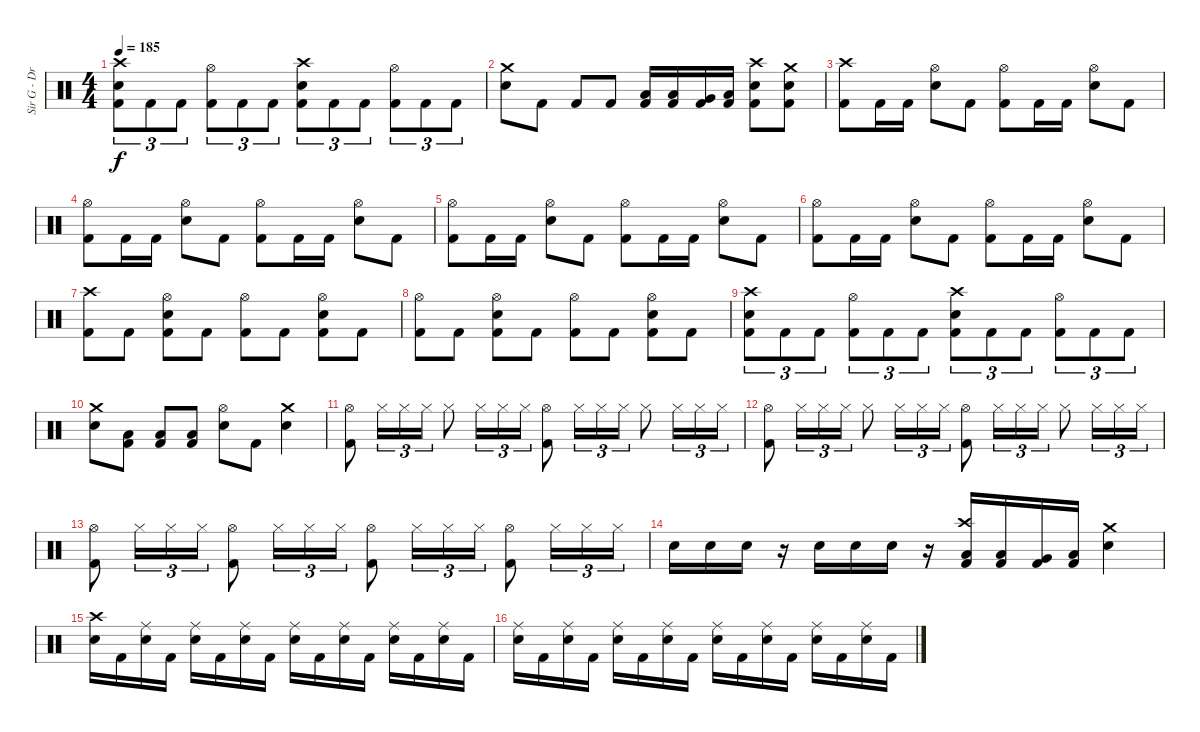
\track ("Sir G - Drums" "Sir G - Dr") {instrument percussion}
\staff {score}
\articulation defaults
\ts (4 4)
\tempo 185
\clef neutral
\ks c
("Kick (hit) 2" "Electric Snare (hit)" "Crash high (hit)").8{tu (3 2) dy f} "Kick (hit) 2".8{tu (3 2)} "Kick (hit) 2".8{tu (3 2)} ("Kick (hit) 2" "Hi-Hat (open)").8{tu (3 2)} "Kick (hit) 2".8{tu (3 2)} "Kick (hit) 2".8{tu (3 2)} ("Kick (hit) 2" "Electric Snare (hit)" "Crash high (hit)").8{tu (3 2)} "Kick (hit) 2".8{tu (3 2)} "Kick (hit) 2".8{tu (3 2)} ("Kick (hit) 2" "Hi-Hat (open)").8{tu (3 2)} "Kick (hit) 2".8{tu (3 2)} "Kick (hit) 2".8{tu (3 2)} |
("Electric Snare (hit)" "Crash medium (hit)").8 "Kick (hit) 2".8 "Kick (hit) 2".8 "Kick (hit) 2".8 ("Kick (hit) 2" "Low Tom (hit)").16 ("Kick (hit) 2" "Low Tom (hit)").16 ("Kick (hit) 2" "Very Low Tom (hit)").16 ("Kick (hit) 2" "Low Floor Tom (hit)").16 ("Kick (hit) 2" "Electric Snare (hit)" "Crash high (hit)").8 ("Kick (hit) 2" "Electric Snare (hit)" "Crash medium (hit)").8 |
("Kick (hit) 2" "Crash high (hit)").8 "Kick (hit) 2".16 "Kick (hit) 2".16 ("Electric Snare (hit)" "Hi-Hat (open)").8 "Kick (hit) 2".8 ("Kick (hit) 2" "Hi-Hat (open)").8 "Kick (hit) 2".16 "Kick (hit) 2".16 ("Electric Snare (hit)" "Hi-Hat (open)").8 "Kick (hit) 2".8 |
("Kick (hit) 2" "Hi-Hat (open)").8 "Kick (hit) 2".16 "Kick (hit) 2".16 ("Electric Snare (hit)" "Hi-Hat (open)").8 "Kick (hit) 2".8 ("Kick (hit) 2" "Hi-Hat (open)").8 "Kick (hit) 2".16 "Kick (hit) 2".16 ("Electric Snare (hit)" "Hi-Hat (open)").8 "Kick (hit) 2".8 |
("Kick (hit) 2" "Hi-Hat (open)").8 "Kick (hit) 2".16 "Kick (hit) 2".16 ("Electric Snare (hit)" "Hi-Hat (open)").8 "Kick (hit) 2".8 ("Kick (hit) 2" "Hi-Hat (open)").8 "Kick (hit) 2".16 "Kick (hit) 2".16 ("Electric Snare (hit)" "Hi-Hat (open)").8 "Kick (hit) 2".8 |
("Kick (hit) 2" "Hi-Hat (open)").8 "Kick (hit) 2".16 "Kick (hit) 2".16 ("Electric Snare (hit)" "Hi-Hat (open)").8 "Kick (hit) 2".8 ("Kick (hit) 2" "Hi-Hat (open)").8 "Kick (hit) 2".16 "Kick (hit) 2".16 ("Electric Snare (hit)" "Hi-Hat (open)").8 "Kick (hit) 2".8 |
("Kick (hit) 2" "Crash high (hit)").8 "Kick (hit) 2".8 ("Kick (hit) 2" "Electric Snare (hit)" "Hi-Hat (open)").8 "Kick (hit) 2".8 ("Kick (hit) 2" "Hi-Hat (open)").8 "Kick (hit) 2".8 ("Kick (hit) 2" "Electric Snare (hit)" "Hi-Hat (open)").8 "Kick (hit) 2".8 |
("Kick (hit) 2" "Hi-Hat (open)").8 "Kick (hit) 2".8 ("Kick (hit) 2" "Electric Snare (hit)" "Hi-Hat (open)").8 "Kick (hit) 2".8 ("Kick (hit) 2" "Hi-Hat (open)").8 "Kick (hit) 2".8 ("Kick (hit) 2" "Electric Snare (hit)" "Hi-Hat (open)").8 "Kick (hit) 2".8 |
("Kick (hit) 2" "Electric Snare (hit)" "Crash high (hit)").8{tu (3 2)} "Kick (hit) 2".8{tu (3 2)} "Kick (hit) 2".8{tu (3 2)} ("Kick (hit) 2" "Hi-Hat (open)").8{tu (3 2)} "Kick (hit) 2".8{tu (3 2)} "Kick (hit) 2".8{tu (3 2)} ("Kick (hit) 2" "Electric Snare (hit)" "Crash high (hit)").8{tu (3 2)} "Kick (hit) 2".8{tu (3 2)} "Kick (hit) 2".8{tu (3 2)} ("Kick (hit) 2" "Hi-Hat (open)").8{tu (3 2)} "Kick (hit) 2".8{tu (3 2)} "Kick (hit) 2".8{tu (3 2)} |
("Electric Snare (hit)" "Crash medium (hit)").8 ("Kick (hit) 2" "Low Floor Tom (hit)").8 ("Kick (hit) 2" "Low Floor Tom (hit)").8 ("Kick (hit) 2" "Low Floor Tom (hit)").8 ("Electric Snare (hit)" "Hi-Hat (open)").8 "Kick (hit) 2".8 ("Electric Snare (hit)" "Crash medium (hit)").4 |
("Kick (hit) 2" "Hi-Hat (open)").8 "Hi-Hat (closed)".16{tu (3 2)} "Hi-Hat (closed)".16{tu (3 2)} "Hi-Hat (closed)".16{tu (3 2)} "Hi-Hat (closed)".8 "Hi-Hat (closed)".16{tu (3 2)} "Hi-Hat (closed)".16{tu (3 2)} "Hi-Hat (closed)".16{tu (3 2)} ("Kick (hit) 2" "Hi-Hat (open)").8 "Hi-Hat (closed)".16{tu (3 2)} "Hi-Hat (closed)".16{tu (3 2)} "Hi-Hat (closed)".16{tu (3 2)} "Hi-Hat (closed)".8 "Hi-Hat (closed)".16{tu (3 2)} "Hi-Hat (closed)".16{tu (3 2)} "Hi-Hat (closed)".16{tu (3 2)} |
("Kick (hit) 2" "Hi-Hat (open)").8 "Hi-Hat (closed)".16{tu (3 2)} "Hi-Hat (closed)".16{tu (3 2)} "Hi-Hat (closed)".16{tu (3 2)} "Hi-Hat (closed)".8 "Hi-Hat (closed)".16{tu (3 2)} "Hi-Hat (closed)".16{tu (3 2)} "Hi-Hat (closed)".16{tu (3 2)} ("Kick (hit) 2" "Hi-Hat (open)").8 "Hi-Hat (closed)".16{tu (3 2)} "Hi-Hat (closed)".16{tu (3 2)} "Hi-Hat (closed)".16{tu (3 2)} "Hi-Hat (closed)".8 "Hi-Hat (closed)".16{tu (3 2)} "Hi-Hat (closed)".16{tu (3 2)} "Hi-Hat (closed)".16{tu (3 2)} |
("Kick (hit) 2" "Hi-Hat (open)").8 "Hi-Hat (closed)".16{tu (3 2)} "Hi-Hat (closed)".16{tu (3 2)} "Hi-Hat (closed)".16{tu (3 2)} ("Kick (hit) 2" "Hi-Hat (open)").8 "Hi-Hat (closed)".16{tu (3 2)} "Hi-Hat (closed)".16{tu (3 2)} "Hi-Hat (closed)".16{tu (3 2)} ("Kick (hit) 2" "Hi-Hat (open)").8 "Hi-Hat (closed)".16{tu (3 2)} "Hi-Hat (closed)".16{tu (3 2)} "Hi-Hat (closed)".16{tu (3 2)} ("Kick (hit) 2" "Hi-Hat (open)").8 "Hi-Hat (closed)".16{tu (3 2)} "Hi-Hat (closed)".16{tu (3 2)} "Hi-Hat (closed)".16{tu (3 2)} |
"Electric Snare (hit)".16 "Electric Snare (hit)".16 "Electric Snare (hit)".16 r.16 "Electric Snare (hit)".16 "Electric Snare (hit)".16 "Electric Snare (hit)".16 r.16 ("Kick (hit) 2" "Low Tom (hit)" "Crash high (hit)").16 ("Kick (hit) 2" "Low Tom (hit)").16 ("Kick (hit) 2" "Very Low Tom (hit)").16 ("Kick (hit) 2" "Low Floor Tom (hit)").16 ("Electric Snare (hit)" "Crash medium (hit)").4 |
("Electric Snare (hit)" "Crash high (hit)").16 "Kick (hit) 2".16 ("Electric Snare (hit)" "Ride (middle)").16 "Kick (hit) 2".16 ("Electric Snare (hit)" "Ride (middle)").16 "Kick (hit) 2".16 ("Electric Snare (hit)" "Ride (middle)").16 "Kick (hit) 2".16 ("Electric Snare (hit)" "Ride (middle)").16 "Kick (hit) 2".16 ("Electric Snare (hit)" "Ride (middle)").16 "Kick (hit) 2".16 ("Electric Snare (hit)" "Ride (middle)").16 "Kick (hit) 2".16 ("Electric Snare (hit)" "Ride (middle)").16 "Kick (hit) 2".16 |
("Electric Snare (hit)" "Ride (middle)").16 "Kick (hit) 2".16 ("Electric Snare (hit)" "Ride (middle)").16 "Kick (hit) 2".16 ("Electric Snare (hit)" "Ride (middle)").16 "Kick (hit) 2".16 ("Electric Snare (hit)" "Ride (middle)").16 "Kick (hit) 2".16 ("Electric Snare (hit)" "Ride (middle)").16 "Kick (hit) 2".16 ("Electric Snare (hit)" "Ride (middle)").16 "Kick (hit) 2".16 ("Electric Snare (hit)" "Ride (middle)").16 "Kick (hit) 2".16 ("Electric Snare (hit)" "Ride (middle)").16 "Kick (hit) 2".16
